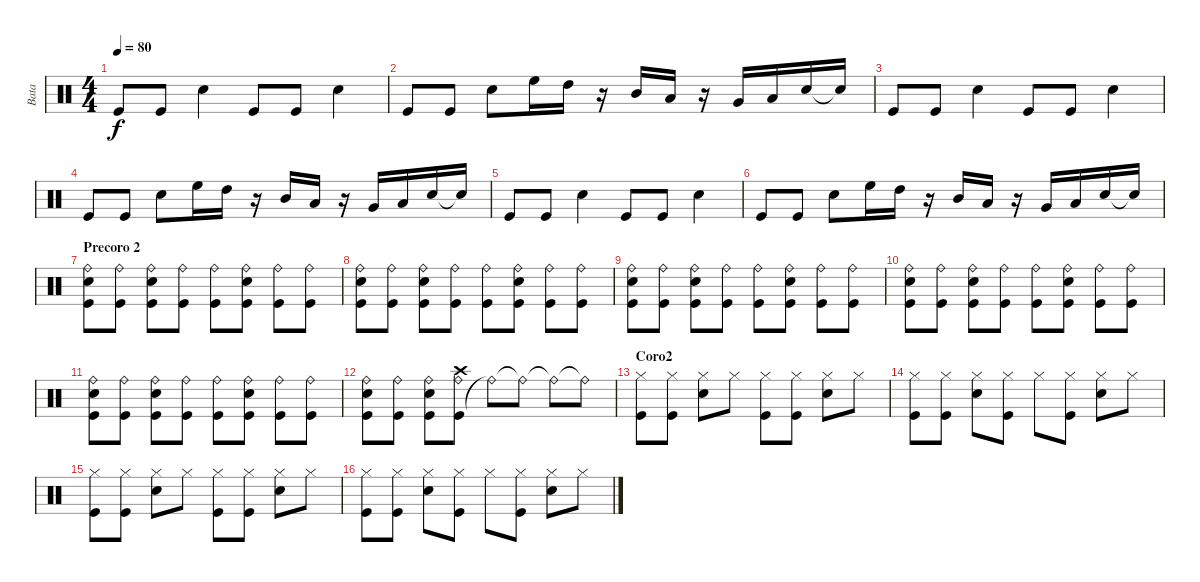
\track ("Bata" "Bata") {instrument percussion}
\staff {score}
\articulation defaults
\ts (4 4)
\tempo 80
\clef neutral
\ks c "Kick (hit)".8{dy f} "Kick (hit)".8 "Snare (hit) 2".4 "Kick (hit)".8 "Kick (hit)".8 "Snare (hit) 2".4
|
"Kick (hit)".8 "Kick (hit)".8 "Snare (hit) 2".8 "High Floor Tom (hit)".16 "High Tom (hit)".16 r.16 "Mid Tom (hit)".16 "Low Tom (hit)".16 r.16 "Very Low Tom (hit)".16 "Low Floor Tom (hit)".16 "Snare (hit) 2".16 "Snare (hit)"{t}.16 |
"Kick (hit)".8 "Kick (hit)".8 "Snare (hit) 2".4 "Kick (hit)".8 "Kick (hit)".8 "Snare (hit) 2".4 |
"Kick (hit)".8 "Kick (hit)".8 "Snare (hit) 2".8 "High Floor Tom (hit)".16 "High Tom (hit)".16 r.16 "Mid Tom (hit)".16 "Low Tom (hit)".16 r.16 "Very Low Tom (hit)".16 "Low Floor Tom (hit)".16 "Snare (hit) 2".16 "Snare (hit)"{t}.16 |
"Kick (hit)".8 "Kick (hit)".8 "Snare (hit) 2".4 "Kick (hit)".8 "Kick (hit)".8 "Snare (hit) 2".4 |
"Kick (hit)".8 "Kick (hit)".8 "Snare (hit) 2".8 "High Floor Tom (hit)".16 "High Tom (hit)".16 r.16 "Mid Tom (hit)".16 "Low Tom (hit)".16 r.16 "Very Low Tom (hit)".16 "Low Floor Tom (hit)".16 "Snare (hit) 2".16 "Snare (hit)"{t}.16 |
\section ("" "Precoro 2")
("Kick (hit)" "Snare (hit) 2" "Ride (bell)").8 ("Kick (hit)" "Ride (bell)").8 ("Kick (hit)" "Snare (hit) 2" "Ride (bell)").8 ("Kick (hit)" "Ride (bell)").8 ("Kick (hit)" "Ride (bell)").8 ("Kick (hit)" "Snare (hit) 2" "Ride (bell)").8 ("Kick (hit)" "Ride (bell)").8 ("Kick (hit)" "Ride (bell)").8 |
("Kick (hit)" "Snare (hit) 2" "Ride (bell)").8 ("Kick (hit)" "Ride (bell)").8 ("Kick (hit)" "Snare (hit) 2" "Ride (bell)").8 ("Kick (hit)" "Ride (bell)").8 ("Kick (hit)" "Ride (bell)").8 ("Kick (hit)" "Snare (hit) 2" "Ride (bell)").8 ("Kick (hit)" "Ride (bell)").8 ("Kick (hit)" "Ride (bell)").8 |
("Kick (hit)" "Snare (hit) 2" "Ride (bell)").8 ("Kick (hit)" "Ride (bell)").8 ("Kick (hit)" "Snare (hit) 2" "Ride (bell)").8 ("Kick (hit)" "Ride (bell)").8 ("Kick (hit)" "Ride (bell)").8 ("Kick (hit)" "Snare (hit) 2" "Ride (bell)").8 ("Kick (hit)" "Ride (bell)").8 ("Kick (hit)" "Ride (bell)").8 |
("Kick (hit)" "Snare (hit) 2" "Ride (bell)").8 ("Kick (hit)" "Ride (bell)").8 ("Kick (hit)" "Snare (hit) 2" "Ride (bell)").8 ("Kick (hit)" "Ride (bell)").8 ("Kick (hit)" "Ride (bell)").8 ("Kick (hit)" "Snare (hit) 2" "Ride (bell)").8 ("Kick (hit)" "Ride (bell)").8 ("Kick (hit)" "Ride (bell)").8 |
("Kick (hit)" "Snare (hit) 2" "Ride (bell)").8 ("Kick (hit)" "Ride (bell)").8 ("Kick (hit)" "Snare (hit) 2" "Ride (bell)").8 ("Kick (hit)" "Ride (bell)").8 ("Kick (hit)" "Ride (bell)").8 ("Kick (hit)" "Snare (hit) 2" "Ride (bell)").8 ("Kick (hit)" "Ride (bell)").8 ("Kick (hit)" "Ride (bell)").8 |
("Kick (hit)" "Snare (hit) 2" "Ride (bell)").8 ("Kick (hit)" "Ride (bell)").8 ("Kick (hit)" "Snare (hit) 2" "Ride (bell)").8 ("Kick (hit)" "Crash high (hit)" "Ride (bell)").8 "Ride (bell)"{t}.8 "Ride (bell)"{t}.8 "Ride (bell)"{t}.8 "Ride (bell)"{t}.8 |
\section ("" "Coro2")
("Kick (hit)" "Hi-Hat (closed)").8 ("Kick (hit)" "Hi-Hat (closed)").8 ("Snare (hit) 2" "Hi-Hat (closed)").8 "Hi-Hat (closed)".8 ("Kick (hit)" "Hi-Hat (closed)").8 ("Kick (hit)" "Hi-Hat (closed)").8 ("Snare (hit) 2" "Hi-Hat (closed)").8 "Hi-Hat (closed)".8 |
("Kick (hit)" "Hi-Hat (closed)").8 ("Kick (hit)" "Hi-Hat (closed)").8 ("Snare (hit) 2" "Hi-Hat (closed)").8 ("Kick (hit)" "Hi-Hat (closed)").8 "Hi-Hat (closed)".8 ("Kick (hit)" "Hi-Hat (closed)").8 ("Snare (hit) 2" "Hi-Hat (closed)").8 "Hi-Hat (closed)".8 |
("Kick (hit)" "Hi-Hat (closed)").8 ("Kick (hit)" "Hi-Hat (closed)").8 ("Snare (hit) 2" "Hi-Hat (closed)").8 "Hi-Hat (closed)".8 ("Kick (hit)" "Hi-Hat (closed)").8 ("Kick (hit)" "Hi-Hat (closed)").8 ("Snare (hit) 2" "Hi-Hat (closed)").8 "Hi-Hat (closed)".8 |
("Kick (hit)" "Hi-Hat (closed)").8 ("Kick (hit)" "Hi-Hat (closed)").8 ("Snare (hit) 2" "Hi-Hat (closed)").8 ("Kick (hit)" "Hi-Hat (closed)").8 "Hi-Hat (closed)".8 ("Kick (hit)" "Hi-Hat (closed)").8 ("Snare (hit) 2" "Hi-Hat (closed)").8 "Hi-Hat (closed)".8
